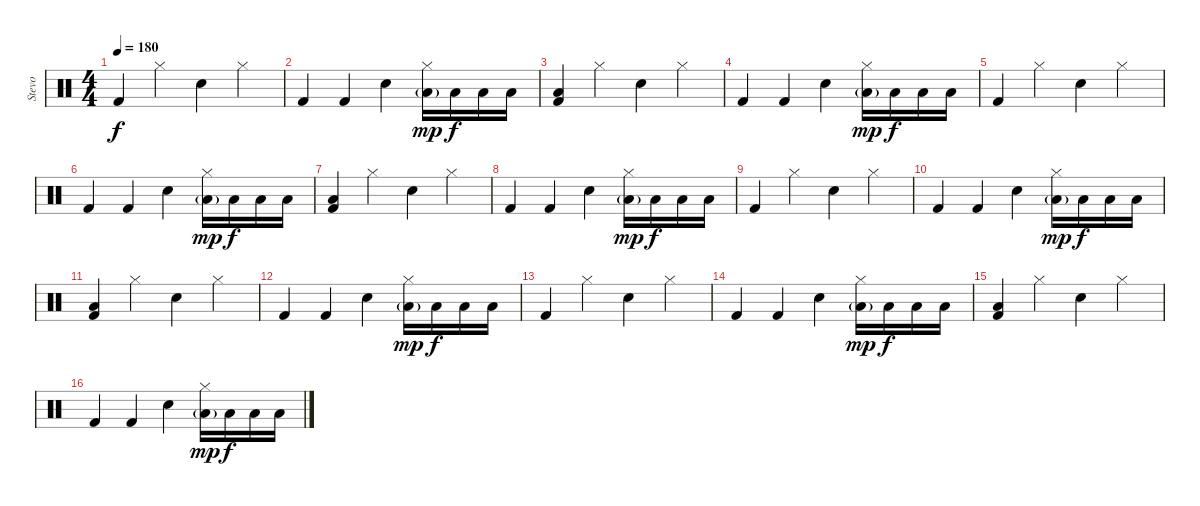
\track ("Stevo" "Stevo") {instrument percussion}
\staff {score}
\articulation defaults
\ts (4 4)
\tempo 180
\clef neutral
\ks c "Kick (hit) 2".4{dy f} "Hi-Hat (closed)".4 "Snare (hit) 2".4 "Hi-Hat (closed)".4
|
"Kick (hit) 2".4 "Kick (hit) 2".4 "Snare (hit) 2".4 ("Low Floor Tom (hit)"{g} "Hi-Hat (closed)").16{dy mp} "Low Floor Tom (hit)".16{dy f} "Low Floor Tom (hit)".16 "Low Floor Tom (hit)".16 |
("Low Floor Tom (hit)" "Kick (hit) 2").4 "Hi-Hat (closed)".4 "Snare (hit) 2".4 "Hi-Hat (closed)".4 |
"Kick (hit) 2".4 "Kick (hit) 2".4 "Snare (hit) 2".4 ("Low Floor Tom (hit)"{g} "Hi-Hat (closed)").16{dy mp} "Low Floor Tom (hit)".16{dy f} "Low Floor Tom (hit)".16 "Low Floor Tom (hit)".16 |
"Kick (hit) 2".4 "Hi-Hat (closed)".4 "Snare (hit) 2".4 "Hi-Hat (closed)".4 |
"Kick (hit) 2".4 "Kick (hit) 2".4 "Snare (hit) 2".4 ("Low Floor Tom (hit)"{g} "Hi-Hat (closed)").16{dy mp} "Low Floor Tom (hit)".16{dy f} "Low Floor Tom (hit)".16 "Low Floor Tom (hit)".16 |
("Low Floor Tom (hit)" "Kick (hit) 2").4 "Hi-Hat (closed)".4 "Snare (hit) 2".4 "Hi-Hat (closed)".4 |
"Kick (hit) 2".4 "Kick (hit) 2".4 "Snare (hit) 2".4 ("Low Floor Tom (hit)"{g} "Hi-Hat (closed)").16{dy mp} "Low Floor Tom (hit)".16{dy f} "Low Floor Tom (hit)".16 "Low Floor Tom (hit)".16 |
"Kick (hit) 2".4 "Hi-Hat (closed)".4 "Snare (hit) 2".4 "Hi-Hat (closed)".4 |
"Kick (hit) 2".4 "Kick (hit) 2".4 "Snare (hit) 2".4 ("Low Floor Tom (hit)"{g} "Hi-Hat (closed)").16{dy mp} "Low Floor Tom (hit)".16{dy f} "Low Floor Tom (hit)".16 "Low Floor Tom (hit)".16 |
("Low Floor Tom (hit)" "Kick (hit) 2").4 "Hi-Hat (closed)".4 "Snare (hit) 2".4 "Hi-Hat (closed)".4 |
"Kick (hit) 2".4 "Kick (hit) 2".4 "Snare (hit) 2".4 ("Low Floor Tom (hit)"{g} "Hi-Hat (closed)").16{dy mp} "Low Floor Tom (hit)".16{dy f} "Low Floor Tom (hit)".16 "Low Floor Tom (hit)".16 |
"Kick (hit) 2".4 "Hi-Hat (closed)".4 "Snare (hit) 2".4 "Hi-Hat (closed)".4 |
"Kick (hit) 2".4 "Kick (hit) 2".4 "Snare (hit) 2".4 ("Low Floor Tom (hit)"{g} "Hi-Hat (closed)").16{dy mp} "Low Floor Tom (hit)".16{dy f} "Low Floor Tom (hit)".16 "Low Floor Tom (hit)".16 |
("Low Floor Tom (hit)" "Kick (hit) 2").4 "Hi-Hat (closed)".4 "Snare (hit) 2".4 "Hi-Hat (closed)".4 |
"Kick (hit) 2".4 "Kick (hit) 2".4 "Snare (hit) 2".4 ("Low Floor Tom (hit)"{g} "Hi-Hat (closed)").16{dy mp} "Low Floor Tom (hit)".16{dy f} "Low Floor Tom (hit)".16 "Low Floor Tom (hit)".16
